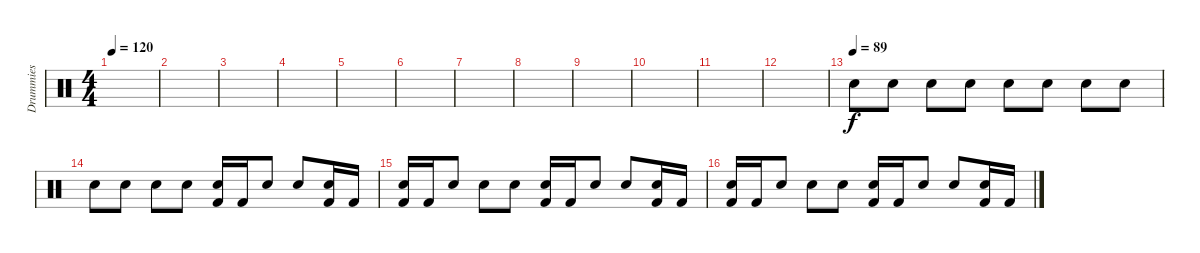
\track ("Drummies" "Drummies") {instrument percussion}
\staff {score}
\articulation defaults
\ts (4 4)
\tempo 120
\tempo 87
\tempo 120
\clef neutral
\ks c
|
|
|
|
|
|
|
|
|
|
|
|
\tempo (89)
"Electric Snare (hit)".8 "Electric Snare (hit)".8 "Electric Snare (hit)".8 "Electric Snare (hit)".8 "Electric Snare (hit)".8 "Electric Snare (hit)".8 "Electric Snare (hit)".8 "Electric Snare (hit)".8 |
"Electric Snare (hit)".8 "Electric Snare (hit)".8 "Electric Snare (hit)".8 "Electric Snare (hit)".8 ("Kick (hit) 2" "Electric Snare (hit)").16 "Kick (hit) 2".16 "Electric Snare (hit)".8 "Electric Snare (hit)".8 ("Kick (hit) 2" "Electric Snare (hit)").16 "Kick (hit) 2".16 |
("Kick (hit) 2" "Electric Snare (hit)").16 "Kick (hit) 2".16 "Electric Snare (hit)".8 "Electric Snare (hit)".8 "Electric Snare (hit)".8 ("Kick (hit) 2" "Electric Snare (hit)").16 "Kick (hit) 2".16 "Electric Snare (hit)".8 "Electric Snare (hit)".8 ("Kick (hit) 2" "Electric Snare (hit)").16 "Kick (hit) 2".16 |
("Kick (hit) 2" "Electric Snare (hit)").16 "Kick (hit) 2".16 "Electric Snare (hit)".8 "Electric Snare (hit)".8 "Electric Snare (hit)".8 ("Kick (hit) 2" "Electric Snare (hit)").16 "Kick (hit) 2".16 "Electric Snare (hit)".8 "Electric Snare (hit)".8 ("Kick (hit) 2" "Electric Snare (hit)").16 "Kick (hit) 2".16
